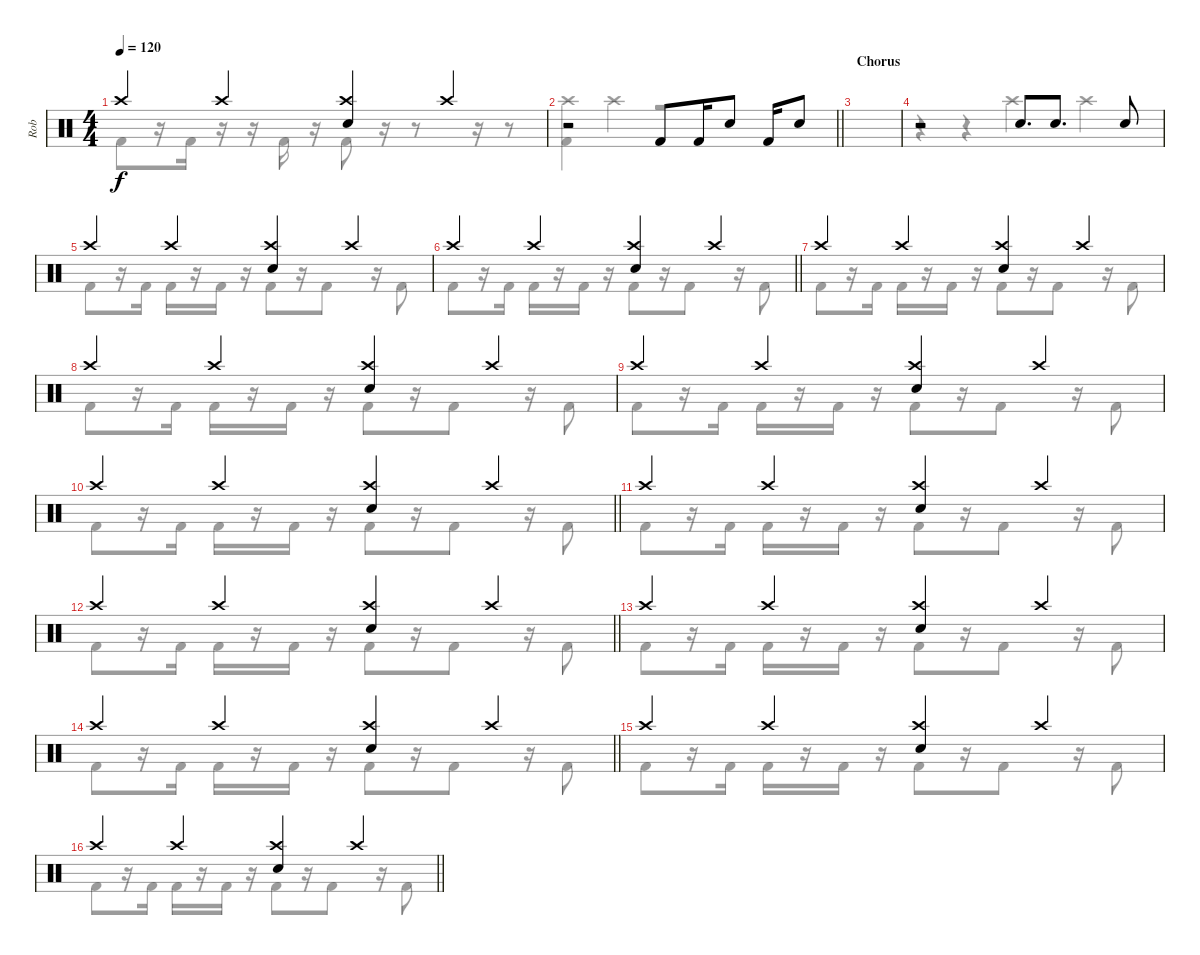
\track ("Rob" "Rob") {instrument percussion}
\staff {score}
\articulation defaults
\voice
\ts (4 4)
\tempo 120
\clef neutral
\ks c "Crash high (hit)".4{dy f} "Crash high (hit)".4
("Crash high (hit)" "Snare (hit) 2").4 "Crash high (hit)".4 |
\barLineRight lightlight
r.2 "Kick (hit) 2".8 "Kick (hit) 2".16 "Snare (hit) 2".8 "Kick (hit) 2".16 "Snare (hit) 2".8 |
\section ("" "Chorus")
|
r.2 "Snare (hit) 2".8{d} "Snare (hit) 2".8{d} "Snare (hit) 2".8 |
"Crash high (hit)".4 "Crash high (hit)".4 ("Crash high (hit)" "Snare (hit) 2").4 "Crash high (hit)".4 |
\barLineRight lightlight "Crash high (hit)".4 "Crash high (hit)".4
("Crash high (hit)" "Snare (hit) 2").4 "Crash high (hit)".4 |
"Crash high (hit)".4 "Crash high (hit)".4 ("Crash high (hit)" "Snare (hit) 2").4 "Crash high (hit)".4 |
"Crash high (hit)".4 "Crash high (hit)".4 ("Crash high (hit)" "Snare (hit) 2").4 "Crash high (hit)".4 |
"Crash high (hit)".4 "Crash high (hit)".4 ("Crash high (hit)" "Snare (hit) 2").4 "Crash high (hit)".4 |
\barLineRight lightlight "Crash high (hit)".4 "Crash high (hit)".4
("Crash high (hit)" "Snare (hit) 2").4 "Crash high (hit)".4 |
"Crash high (hit)".4 "Crash high (hit)".4 ("Crash high (hit)" "Snare (hit) 2").4 "Crash high (hit)".4 |
\barLineRight lightlight "Crash high (hit)".4 "Crash high (hit)".4
("Crash high (hit)" "Snare (hit) 2").4 "Crash high (hit)".4 |
"Crash high (hit)".4 "Crash high (hit)".4 ("Crash high (hit)" "Snare (hit) 2").4 "Crash high (hit)".4 |
\barLineRight lightlight "Crash high (hit)".4 "Crash high (hit)".4
("Crash high (hit)" "Snare (hit) 2").4 "Crash high (hit)".4 |
"Crash high (hit)".4 "Crash high (hit)".4 ("Crash high (hit)" "Snare (hit) 2").4 "Crash high (hit)".4 |
\barLineRight lightlight "Crash high (hit)".4 "Crash high (hit)".4
("Crash high (hit)" "Snare (hit) 2").4 "Crash high (hit)".4
\voice
\clef neutral
\ottava regular
\simile none
\ks c "Kick (hit) 2".8{dy f}
r.16 "Kick (hit) 2".16 r.16 r.16 "Kick (hit) 2".16 r.16 "Kick (hit) 2".8 r.16 r.8 r.16 r.8 |
\barLineRight lightlight
("Crash high (hit)" "Kick (hit) 2").4 "Crash high (hit)".4 r.2 |
|
r.4 r.4 "Crash high (hit)".4 "Crash high (hit)".4 |
"Kick (hit) 2".8 r.16 "Kick (hit) 2".16 "Kick (hit) 2".16 r.16 "Kick (hit) 2".16 r.16 "Kick (hit) 2".8 r.16 "Kick (hit) 2".8 r.16 "Kick (hit) 2".8 |
\barLineRight lightlight "Kick (hit) 2".8
r.16 "Kick (hit) 2".16 "Kick (hit) 2".16 r.16 "Kick (hit) 2".16 r.16 "Kick (hit) 2".8 r.16 "Kick (hit) 2".8 r.16 "Kick (hit) 2".8 |
"Kick (hit) 2".8 r.16 "Kick (hit) 2".16 "Kick (hit) 2".16 r.16 "Kick (hit) 2".16 r.16 "Kick (hit) 2".8 r.16 "Kick (hit) 2".8 r.16 "Kick (hit) 2".8 |
"Kick (hit) 2".8 r.16 "Kick (hit) 2".16 "Kick (hit) 2".16 r.16 "Kick (hit) 2".16 r.16 "Kick (hit) 2".8 r.16 "Kick (hit) 2".8 r.16 "Kick (hit) 2".8 |
"Kick (hit) 2".8 r.16 "Kick (hit) 2".16 "Kick (hit) 2".16 r.16 "Kick (hit) 2".16 r.16 "Kick (hit) 2".8 r.16 "Kick (hit) 2".8 r.16 "Kick (hit) 2".8 |
\barLineRight lightlight "Kick (hit) 2".8
r.16 "Kick (hit) 2".16 "Kick (hit) 2".16 r.16 "Kick (hit) 2".16 r.16 "Kick (hit) 2".8 r.16 "Kick (hit) 2".8 r.16 "Kick (hit) 2".8 |
"Kick (hit) 2".8 r.16 "Kick (hit) 2".16 "Kick (hit) 2".16 r.16 "Kick (hit) 2".16 r.16 "Kick (hit) 2".8 r.16 "Kick (hit) 2".8 r.16 "Kick (hit) 2".8 |
\barLineRight lightlight "Kick (hit) 2".8
r.16 "Kick (hit) 2".16 "Kick (hit) 2".16 r.16 "Kick (hit) 2".16 r.16 "Kick (hit) 2".8 r.16 "Kick (hit) 2".8 r.16 "Kick (hit) 2".8 |
"Kick (hit) 2".8 r.16 "Kick (hit) 2".16 "Kick (hit) 2".16 r.16 "Kick (hit) 2".16 r.16 "Kick (hit) 2".8 r.16 "Kick (hit) 2".8 r.16 "Kick (hit) 2".8 |
\barLineRight lightlight "Kick (hit) 2".8
r.16 "Kick (hit) 2".16 "Kick (hit) 2".16 r.16 "Kick (hit) 2".16 r.16 "Kick (hit) 2".8 r.16 "Kick (hit) 2".8 r.16 "Kick (hit) 2".8 |
"Kick (hit) 2".8 r.16 "Kick (hit) 2".16 "Kick (hit) 2".16 r.16 "Kick (hit) 2".16 r.16 "Kick (hit) 2".8 r.16 "Kick (hit) 2".8 r.16 "Kick (hit) 2".8 |
\barLineRight lightlight "Kick (hit) 2".8
r.16 "Kick (hit) 2".16 "Kick (hit) 2".16 r.16 "Kick (hit) 2".16 r.16 "Kick (hit) 2".8 r.16 "Kick (hit) 2".8 r.16 "Kick (hit) 2".8
